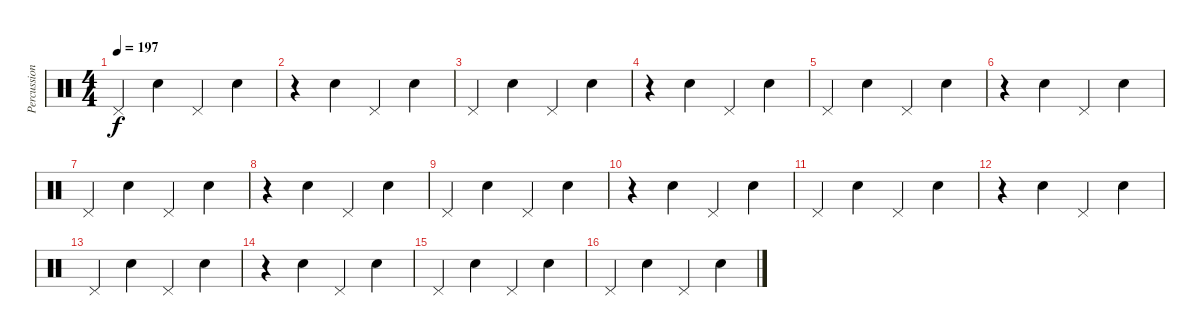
\track ("Percussion" "Percussion") {instrument percussion}
\staff {score}
\articulation defaults
\ts (4 4)
\tempo 197
\clef neutral
\ks c "Pedal Hi-Hat (hit)".4{dy f} "Electric Snare (hit)".4 "Pedal Hi-Hat (hit)".4 "Electric Snare (hit)".4
|
r.4 "Electric Snare (hit)".4 "Pedal Hi-Hat (hit)".4 "Electric Snare (hit)".4 |
"Pedal Hi-Hat (hit)".4 "Electric Snare (hit)".4 "Pedal Hi-Hat (hit)".4 "Electric Snare (hit)".4 |
r.4 "Electric Snare (hit)".4 "Pedal Hi-Hat (hit)".4 "Electric Snare (hit)".4 |
"Pedal Hi-Hat (hit)".4 "Electric Snare (hit)".4 "Pedal Hi-Hat (hit)".4 "Electric Snare (hit)".4 |
r.4 "Electric Snare (hit)".4 "Pedal Hi-Hat (hit)".4 "Electric Snare (hit)".4 |
"Pedal Hi-Hat (hit)".4 "Electric Snare (hit)".4 "Pedal Hi-Hat (hit)".4 "Electric Snare (hit)".4 |
r.4 "Electric Snare (hit)".4 "Pedal Hi-Hat (hit)".4 "Electric Snare (hit)".4 |
"Pedal Hi-Hat (hit)".4 "Electric Snare (hit)".4 "Pedal Hi-Hat (hit)".4 "Electric Snare (hit)".4 |
r.4 "Electric Snare (hit)".4 "Pedal Hi-Hat (hit)".4 "Electric Snare (hit)".4 |
"Pedal Hi-Hat (hit)".4 "Electric Snare (hit)".4 "Pedal Hi-Hat (hit)".4 "Electric Snare (hit)".4 |
r.4 "Electric Snare (hit)".4 "Pedal Hi-Hat (hit)".4 "Electric Snare (hit)".4 |
"Pedal Hi-Hat (hit)".4 "Electric Snare (hit)".4 "Pedal Hi-Hat (hit)".4 "Electric Snare (hit)".4 |
r.4 "Electric Snare (hit)".4 "Pedal Hi-Hat (hit)".4 "Electric Snare (hit)".4 |
"Pedal Hi-Hat (hit)".4 "Electric Snare (hit)".4 "Pedal Hi-Hat (hit)".4 "Electric Snare (hit)".4 |
"Pedal Hi-Hat (hit)".4 "Electric Snare (hit)".4 "Pedal Hi-Hat (hit)".4 "Electric Snare (hit)".4
